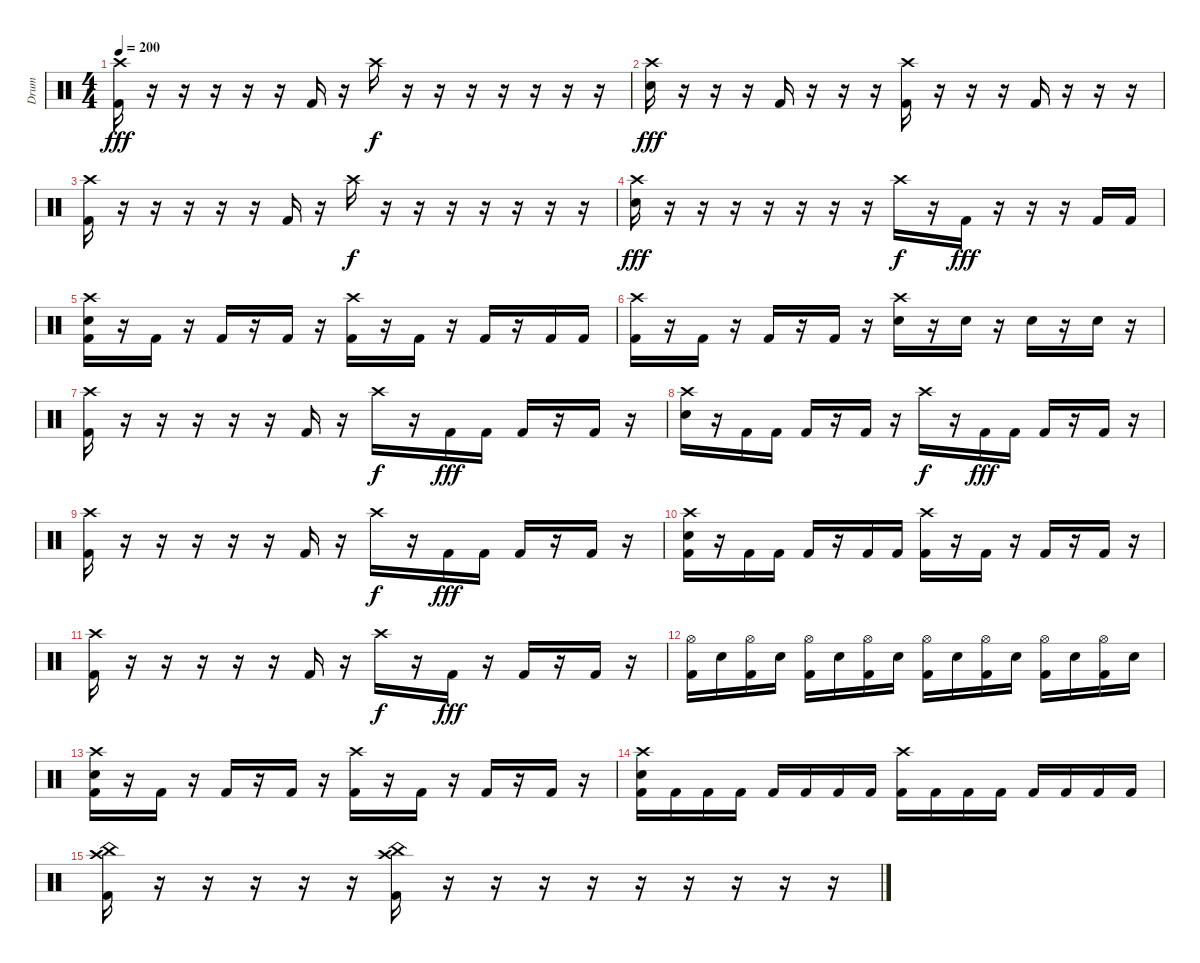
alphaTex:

\track ("Drum" "Drum") {instrument percussion}
\staff {score}
\articulation defaults
\ts (4 4)
\tempo 200
\clef neutral
\ks c
("Crash high (hit)" "Kick (hit) 2").16{dy fff} r.16 r.16 r.16 r.16 r.16 "Kick (hit) 2".16 r.16 "Crash high (hit)".16{dy f} r.16 r.16 r.16 r.16 r.16 r.16 r.16 |
("Crash high (hit)" "Electric Snare (hit)").16{dy fff} r.16 r.16 r.16 "Kick (hit) 2".16 r.16 r.16 r.16 ("Crash high (hit)" "Kick (hit) 2").16 r.16 r.16 r.16 "Kick (hit) 2".16 r.16 r.16 r.16 |
("Crash high (hit)" "Kick (hit) 2").16 r.16 r.16 r.16 r.16 r.16 "Kick (hit) 2".16 r.16 "Crash high (hit)".16{dy f} r.16 r.16 r.16 r.16 r.16 r.16 r.16 |
("Crash high (hit)" "Electric Snare (hit)").16{dy fff} r.16 r.16 r.16 r.16 r.16 r.16 r.16 "Crash high (hit)".16{dy f} r.16 "Kick (hit) 2".16{dy fff} r.16 r.16 r.16 "Kick (hit) 2".16 "Kick (hit) 2".16 |
("Crash high (hit)" "Electric Snare (hit)" "Kick (hit) 2").16 r.16 "Kick (hit) 2".16 r.16 "Kick (hit) 2".16 r.16 "Kick (hit) 2".16 r.16 ("Crash high (hit)" "Kick (hit) 2").16 r.16 "Kick (hit) 2".16 r.16 "Kick (hit) 2".16 r.16 "Kick (hit) 2".16 "Kick (hit) 2".16 |
("Crash high (hit)" "Kick (hit) 2").16 r.16 "Kick (hit) 2".16 r.16 "Kick (hit) 2".16 r.16 "Kick (hit) 2".16 r.16 ("Crash high (hit)" "Electric Snare (hit)").16 r.16 "Electric Snare (hit)".16 r.16 "Electric Snare (hit)".16 r.16 "Electric Snare (hit)".16 r.16 |
("Crash high (hit)" "Kick (hit) 2").16 r.16 r.16 r.16 r.16 r.16 "Kick (hit) 2".16 r.16 "Crash high (hit)".16{dy f} r.16 "Kick (hit) 2".16{dy fff} "Kick (hit) 2".16 "Kick (hit) 2".16 r.16 "Kick (hit) 2".16 r.16 |
("Crash high (hit)" "Electric Snare (hit)").16 r.16 "Kick (hit) 2".16 "Kick (hit) 2".16 "Kick (hit) 2".16 r.16 "Kick (hit) 2".16 r.16 "Crash high (hit)".16{dy f} r.16 "Kick (hit) 2".16{dy fff} "Kick (hit) 2".16 "Kick (hit) 2".16 r.16 "Kick (hit) 2".16 r.16 |
("Crash high (hit)" "Kick (hit) 2").16 r.16 r.16 r.16 r.16 r.16 "Kick (hit) 2".16 r.16 "Crash high (hit)".16{dy f} r.16 "Kick (hit) 2".16{dy fff} "Kick (hit) 2".16 "Kick (hit) 2".16 r.16 "Kick (hit) 2".16 r.16 |
("Crash high (hit)" "Electric Snare (hit)" "Kick (hit) 2").16 r.16 "Kick (hit) 2".16 "Kick (hit) 2".16 "Kick (hit) 2".16 r.16 "Kick (hit) 2".16 "Kick (hit) 2".16 ("Crash high (hit)" "Kick (hit) 2").16 r.16 "Kick (hit) 2".16 r.16 "Kick (hit) 2".16 r.16 "Kick (hit) 2".16 r.16 |
("Crash high (hit)" "Kick (hit) 2").16 r.16 r.16 r.16 r.16 r.16 "Kick (hit) 2".16 r.16 "Crash high (hit)".16{dy f} r.16 "Kick (hit) 2".16{dy fff} r.16 "Kick (hit) 2".16 r.16 "Kick (hit) 2".16 r.16 |
("Hi-Hat (open)" "Kick (hit) 2").16 "Electric Snare (hit)".16 ("Hi-Hat (open)" "Kick (hit) 2").16 "Electric Snare (hit)".16 ("Hi-Hat (open)" "Kick (hit) 2").16 "Electric Snare (hit)".16 ("Hi-Hat (open)" "Kick (hit) 2").16 "Electric Snare (hit)".16 ("Hi-Hat (open)" "Kick (hit) 2").16 "Electric Snare (hit)".16 ("Hi-Hat (open)" "Kick (hit) 2").16 "Electric Snare (hit)".16 ("Hi-Hat (open)" "Kick (hit) 2").16 "Electric Snare (hit)".16 ("Hi-Hat (open)" "Kick (hit) 2").16 "Electric Snare (hit)".16 |
("Crash high (hit)" "Electric Snare (hit)" "Kick (hit) 2").16 r.16 "Kick (hit) 2".16 r.16 "Kick (hit) 2".16 r.16 "Kick (hit) 2".16 r.16 ("Crash high (hit)" "Kick (hit) 2").16 r.16 "Kick (hit) 2".16 r.16 "Kick (hit) 2".16 r.16 "Kick (hit) 2".16 r.16 |
("Crash high (hit)" "Electric Snare (hit)" "Kick (hit) 2").16 "Kick (hit) 2".16 "Kick (hit) 2".16 "Kick (hit) 2".16 "Kick (hit) 2".16 "Kick (hit) 2".16 "Kick (hit) 2".16 "Kick (hit) 2".16 ("Crash high (hit)" "Kick (hit) 2").16 "Kick (hit) 2".16 "Kick (hit) 2".16 "Kick (hit) 2".16 "Kick (hit) 2".16 "Kick (hit) 2".16 "Kick (hit) 2".16 "Kick (hit) 2".16 |
("Crash high (hit)" "China (hit)" "Kick (hit) 2").16 r.16 r.16 r.16 r.16 r.16 ("Crash high (hit)" "China (hit)" "Kick (hit) 2").16 r.16 r.16 r.16 r.16 r.16 r.16 r.16 r.16 r.16
